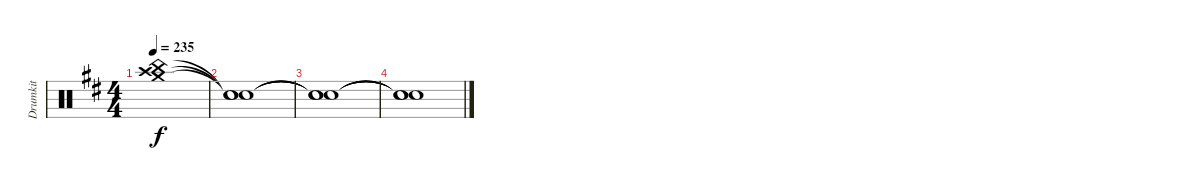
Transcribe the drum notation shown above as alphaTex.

\track ("Drumkit" "Drumkit") {instrument percussion}
\staff {score}
\articulation defaults
\ts (4 4)
\tempo 235
\clef neutral
\ks d
("Crash high (hit)" "China (hit)" "Crash medium (hit)").1{dy f} |
("Snare (hit)"{t} "Snare (hit)"{t} "Snare (hit)"{t}).1 |
("Snare (hit)"{t} "Snare (hit)"{t} "Snare (hit)"{t}).1 |
("Snare (hit)"{t} "Snare (hit)"{t} "Snare (hit)"{t}).1
